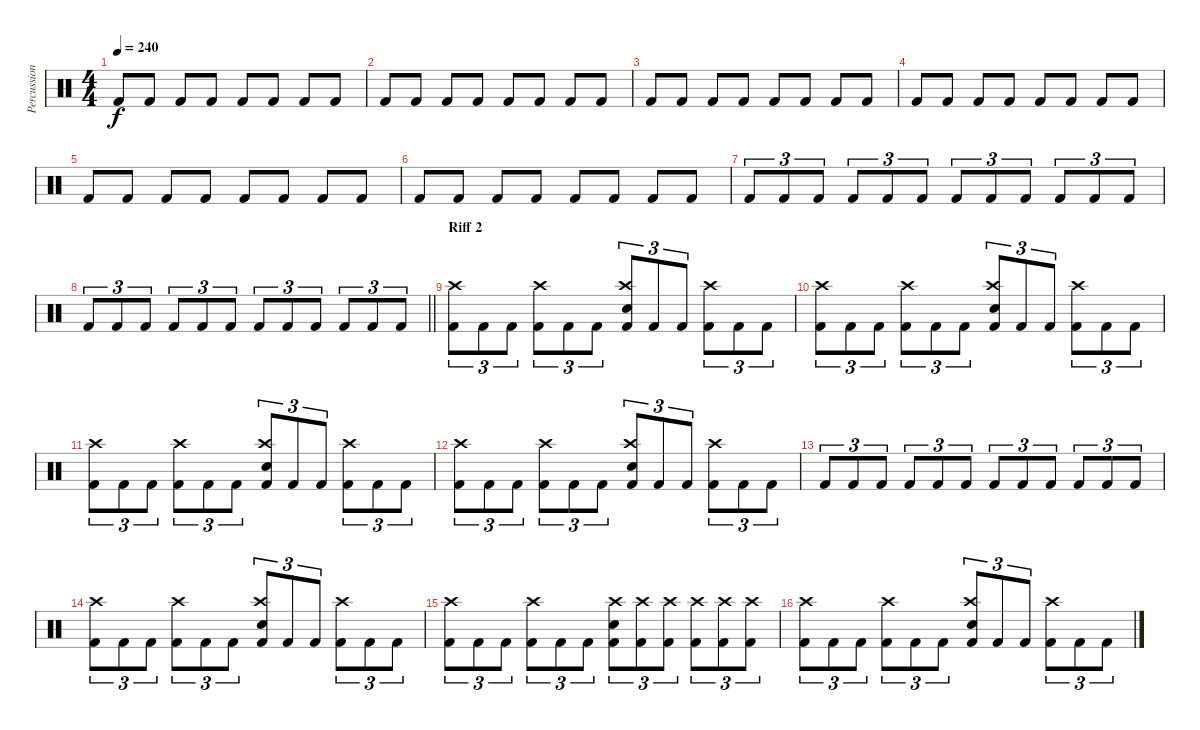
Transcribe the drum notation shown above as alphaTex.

\track ("Percussion" "Percussion") {instrument percussion}
\staff {score}
\articulation defaults
\ts (4 4)
\tempo 240
\clef neutral
\ks c "Kick (hit) 2".8{dy f} "Kick (hit) 2".8 "Kick (hit) 2".8 "Kick (hit) 2".8 "Kick (hit) 2".8 "Kick (hit) 2".8 "Kick (hit) 2".8 "Kick (hit) 2".8
|
"Kick (hit) 2".8 "Kick (hit) 2".8 "Kick (hit) 2".8 "Kick (hit) 2".8 "Kick (hit) 2".8 "Kick (hit) 2".8 "Kick (hit) 2".8 "Kick (hit) 2".8 |
"Kick (hit) 2".8 "Kick (hit) 2".8 "Kick (hit) 2".8 "Kick (hit) 2".8 "Kick (hit) 2".8 "Kick (hit) 2".8 "Kick (hit) 2".8 "Kick (hit) 2".8 |
"Kick (hit) 2".8 "Kick (hit) 2".8 "Kick (hit) 2".8 "Kick (hit) 2".8 "Kick (hit) 2".8 "Kick (hit) 2".8 "Kick (hit) 2".8 "Kick (hit) 2".8 |
"Kick (hit) 2".8 "Kick (hit) 2".8 "Kick (hit) 2".8 "Kick (hit) 2".8 "Kick (hit) 2".8 "Kick (hit) 2".8 "Kick (hit) 2".8 "Kick (hit) 2".8 |
"Kick (hit) 2".8 "Kick (hit) 2".8 "Kick (hit) 2".8 "Kick (hit) 2".8 "Kick (hit) 2".8 "Kick (hit) 2".8 "Kick (hit) 2".8 "Kick (hit) 2".8 |
"Kick (hit) 2".8{tu (3 2)} "Kick (hit) 2".8{tu (3 2)} "Kick (hit) 2".8{tu (3 2)} "Kick (hit) 2".8{tu (3 2)} "Kick (hit) 2".8{tu (3 2)} "Kick (hit) 2".8{tu (3 2)} "Kick (hit) 2".8{tu (3 2)} "Kick (hit) 2".8{tu (3 2)} "Kick (hit) 2".8{tu (3 2)} "Kick (hit) 2".8{tu (3 2)} "Kick (hit) 2".8{tu (3 2)} "Kick (hit) 2".8{tu (3 2)} |
\barLineRight lightlight "Kick (hit) 2".8{tu (3 2)} "Kick (hit) 2".8{tu (3 2)} "Kick (hit) 2".8{tu (3 2)} "Kick (hit) 2".8{tu (3 2)} "Kick (hit) 2".8{tu (3 2)} "Kick (hit) 2".8{tu (3 2)} "Kick (hit) 2".8{tu (3 2)} "Kick (hit) 2".8{tu (3 2)} "Kick (hit) 2".8{tu (3 2)} "Kick (hit) 2".8{tu (3 2)} "Kick (hit) 2".8{tu (3 2)} "Kick (hit) 2".8{tu (3 2)}
|
\section ("" "Riff 2")
("Kick (hit) 2" "Crash high (hit)").8{tu (3 2)} "Kick (hit) 2".8{tu (3 2)} "Kick (hit) 2".8{tu (3 2)} ("Kick (hit) 2" "Crash high (hit)").8{tu (3 2)} "Kick (hit) 2".8{tu (3 2)} "Kick (hit) 2".8{tu (3 2)} ("Kick (hit) 2" "Crash high (hit)" "Electric Snare (hit)").8{tu (3 2)} "Kick (hit) 2".8{tu (3 2)} "Kick (hit) 2".8{tu (3 2)} ("Kick (hit) 2" "Crash high (hit)").8{tu (3 2)} "Kick (hit) 2".8{tu (3 2)} "Kick (hit) 2".8{tu (3 2)} |
("Kick (hit) 2" "Crash high (hit)").8{tu (3 2)} "Kick (hit) 2".8{tu (3 2)} "Kick (hit) 2".8{tu (3 2)} ("Kick (hit) 2" "Crash high (hit)").8{tu (3 2)} "Kick (hit) 2".8{tu (3 2)} "Kick (hit) 2".8{tu (3 2)} ("Kick (hit) 2" "Crash high (hit)" "Electric Snare (hit)").8{tu (3 2)} "Kick (hit) 2".8{tu (3 2)} "Kick (hit) 2".8{tu (3 2)} ("Kick (hit) 2" "Crash high (hit)").8{tu (3 2)} "Kick (hit) 2".8{tu (3 2)} "Kick (hit) 2".8{tu (3 2)} |
("Kick (hit) 2" "Crash high (hit)").8{tu (3 2)} "Kick (hit) 2".8{tu (3 2)} "Kick (hit) 2".8{tu (3 2)} ("Kick (hit) 2" "Crash high (hit)").8{tu (3 2)} "Kick (hit) 2".8{tu (3 2)} "Kick (hit) 2".8{tu (3 2)} ("Kick (hit) 2" "Crash high (hit)" "Electric Snare (hit)").8{tu (3 2)} "Kick (hit) 2".8{tu (3 2)} "Kick (hit) 2".8{tu (3 2)} ("Kick (hit) 2" "Crash high (hit)").8{tu (3 2)} "Kick (hit) 2".8{tu (3 2)} "Kick (hit) 2".8{tu (3 2)} |
("Kick (hit) 2" "Crash high (hit)").8{tu (3 2)} "Kick (hit) 2".8{tu (3 2)} "Kick (hit) 2".8{tu (3 2)} ("Kick (hit) 2" "Crash high (hit)").8{tu (3 2)} "Kick (hit) 2".8{tu (3 2)} "Kick (hit) 2".8{tu (3 2)} ("Kick (hit) 2" "Crash high (hit)" "Electric Snare (hit)").8{tu (3 2)} "Kick (hit) 2".8{tu (3 2)} "Kick (hit) 2".8{tu (3 2)} ("Kick (hit) 2" "Crash high (hit)").8{tu (3 2)} "Kick (hit) 2".8{tu (3 2)} "Kick (hit) 2".8{tu (3 2)} |
"Kick (hit) 2".8{tu (3 2)} "Kick (hit) 2".8{tu (3 2)} "Kick (hit) 2".8{tu (3 2)} "Kick (hit) 2".8{tu (3 2)} "Kick (hit) 2".8{tu (3 2)} "Kick (hit) 2".8{tu (3 2)} "Kick (hit) 2".8{tu (3 2)} "Kick (hit) 2".8{tu (3 2)} "Kick (hit) 2".8{tu (3 2)} "Kick (hit) 2".8{tu (3 2)} "Kick (hit) 2".8{tu (3 2)} "Kick (hit) 2".8{tu (3 2)} |
("Kick (hit) 2" "Crash high (hit)").8{tu (3 2)} "Kick (hit) 2".8{tu (3 2)} "Kick (hit) 2".8{tu (3 2)} ("Kick (hit) 2" "Crash high (hit)").8{tu (3 2)} "Kick (hit) 2".8{tu (3 2)} "Kick (hit) 2".8{tu (3 2)} ("Kick (hit) 2" "Crash high (hit)" "Electric Snare (hit)").8{tu (3 2)} "Kick (hit) 2".8{tu (3 2)} "Kick (hit) 2".8{tu (3 2)} ("Kick (hit) 2" "Crash high (hit)").8{tu (3 2)} "Kick (hit) 2".8{tu (3 2)} "Kick (hit) 2".8{tu (3 2)} |
("Kick (hit) 2" "Crash high (hit)").8{tu (3 2)} "Kick (hit) 2".8{tu (3 2)} "Kick (hit) 2".8{tu (3 2)} ("Kick (hit) 2" "Crash high (hit)").8{tu (3 2)} "Kick (hit) 2".8{tu (3 2)} "Kick (hit) 2".8{tu (3 2)} ("Kick (hit) 2" "Crash high (hit)" "Electric Snare (hit)").8{tu (3 2)} ("Kick (hit) 2" "Crash high (hit)").8{tu (3 2)} ("Kick (hit) 2" "Crash high (hit)").8{tu (3 2)} ("Kick (hit) 2" "Crash high (hit)").8{tu (3 2)} ("Kick (hit) 2" "Crash high (hit)").8{tu (3 2)} ("Kick (hit) 2" "Crash high (hit)").8{tu (3 2)} |
("Kick (hit) 2" "Crash high (hit)").8{tu (3 2)} "Kick (hit) 2".8{tu (3 2)} "Kick (hit) 2".8{tu (3 2)} ("Kick (hit) 2" "Crash high (hit)").8{tu (3 2)} "Kick (hit) 2".8{tu (3 2)} "Kick (hit) 2".8{tu (3 2)} ("Kick (hit) 2" "Crash high (hit)" "Electric Snare (hit)").8{tu (3 2)} "Kick (hit) 2".8{tu (3 2)} "Kick (hit) 2".8{tu (3 2)} ("Kick (hit) 2" "Crash high (hit)").8{tu (3 2)} "Kick (hit) 2".8{tu (3 2)} "Kick (hit) 2".8{tu (3 2)}
